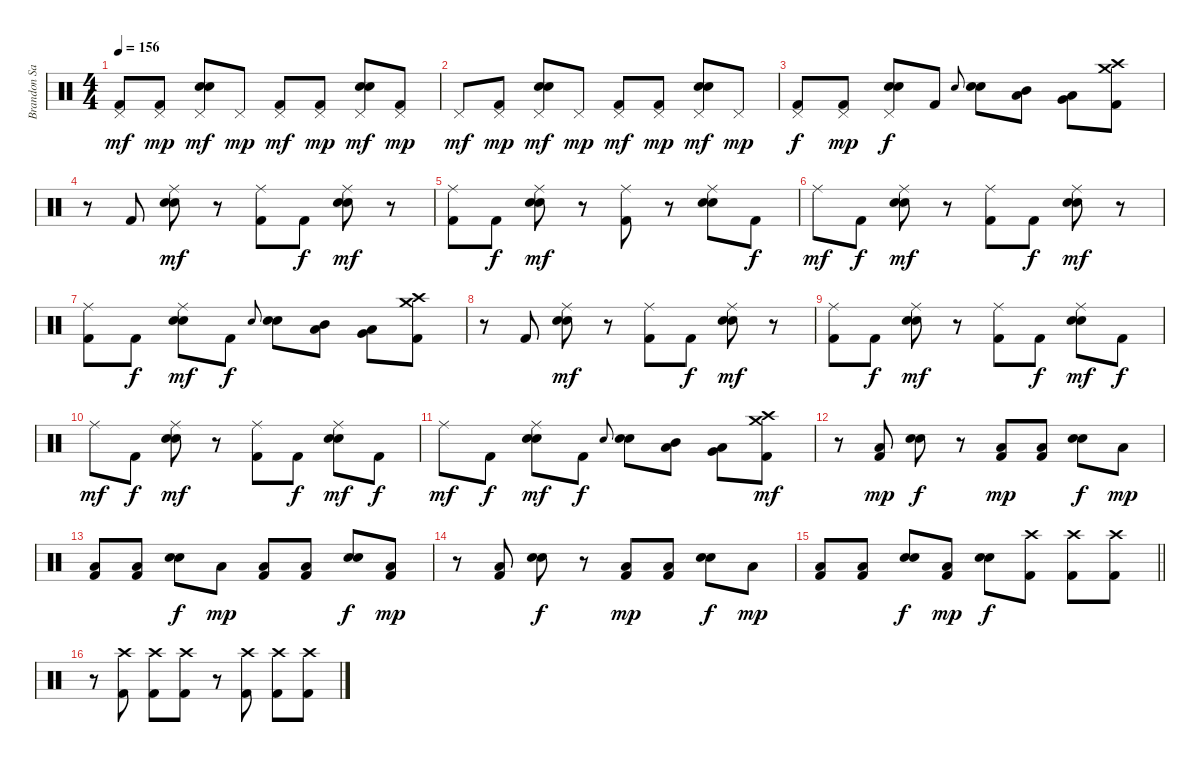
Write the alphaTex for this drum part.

\track ("Brandon Saller" "Brandon Sa") {instrument percussion}
\staff {score}
\articulation defaults
\ts (4 4)
\tempo 156
\clef neutral
\ks c
("Pedal Hi-Hat (hit)" "Kick (hit) 2").8{dy mf} ("Pedal Hi-Hat (hit)" "Kick (hit) 2").8{dy mp} ("Pedal Hi-Hat (hit)" "Snare (hit) 2" "Electric Snare (hit)").8{dy mf} "Pedal Hi-Hat (hit)".8{dy mp} ("Pedal Hi-Hat (hit)" "Kick (hit) 2").8{dy mf} ("Pedal Hi-Hat (hit)" "Kick (hit) 2").8{dy mp} ("Pedal Hi-Hat (hit)" "Snare (hit) 2" "Electric Snare (hit)").8{dy mf} ("Pedal Hi-Hat (hit)" "Kick (hit) 2").8{dy mp} |
"Pedal Hi-Hat (hit)".8{dy mf} ("Pedal Hi-Hat (hit)" "Kick (hit) 2").8{dy mp} ("Pedal Hi-Hat (hit)" "Snare (hit) 2" "Electric Snare (hit)").8{dy mf} "Pedal Hi-Hat (hit)".8{dy mp} ("Pedal Hi-Hat (hit)" "Kick (hit) 2").8{dy mf} ("Pedal Hi-Hat (hit)" "Kick (hit) 2").8{dy mp} ("Pedal Hi-Hat (hit)" "Snare (hit) 2" "Electric Snare (hit)").8{dy mf} "Pedal Hi-Hat (hit)".8{dy mp} |
("Pedal Hi-Hat (hit)" "Kick (hit) 2").8{dy f} ("Pedal Hi-Hat (hit)" "Kick (hit) 2").8{dy mp} ("Pedal Hi-Hat (hit)" "Snare (hit) 2" "Electric Snare (hit)").8{dy f} "Kick (hit) 2".8 "Electric Snare (hit)".8{gr onbeat} ("Snare (hit) 2" "Electric Snare (hit)").8 ("Mid Tom (hit)" "Low Tom (hit)").8 ("Low Tom (hit)" "Very Low Tom (hit)").8 ("Crash high (hit)" "Crash medium (hit)" "Kick (hit) 2").8 |
r.8 "Kick (hit) 2".8 ("Ride (middle)" "Snare (hit) 2" "Electric Snare (hit)").8{dy mf} r.8 ("Ride (middle)" "Kick (hit) 2").8 "Kick (hit) 2".8{dy f} ("Ride (middle)" "Snare (hit) 2" "Electric Snare (hit)").8{dy mf} r.8 |
("Ride (middle)" "Kick (hit) 2").8 "Kick (hit) 2".8{dy f} ("Ride (middle)" "Snare (hit) 2" "Electric Snare (hit)").8{dy mf} r.8 ("Ride (middle)" "Kick (hit) 2").8 r.8 ("Ride (middle)" "Snare (hit) 2" "Electric Snare (hit)").8 "Kick (hit) 2".8{dy f} |
"Ride (middle)".8{dy mf} "Kick (hit) 2".8{dy f} ("Ride (middle)" "Snare (hit) 2" "Electric Snare (hit)").8{dy mf} r.8 ("Ride (middle)" "Kick (hit) 2").8 "Kick (hit) 2".8{dy f} ("Ride (middle)" "Snare (hit) 2" "Electric Snare (hit)").8{dy mf} r.8 |
("Ride (middle)" "Kick (hit) 2").8 "Kick (hit) 2".8{dy f} ("Ride (middle)" "Snare (hit) 2" "Electric Snare (hit)").8{dy mf} "Kick (hit) 2".8{dy f} "Electric Snare (hit)".8{gr onbeat} ("Snare (hit) 2" "Electric Snare (hit)").8 ("Mid Tom (hit)" "Low Tom (hit)").8 ("Low Tom (hit)" "Very Low Tom (hit)").8 ("Crash high (hit)" "Crash medium (hit)" "Kick (hit) 2").8 |
r.8 "Kick (hit) 2".8 ("Ride (middle)" "Snare (hit) 2" "Electric Snare (hit)").8{dy mf} r.8 ("Ride (middle)" "Kick (hit) 2").8 "Kick (hit) 2".8{dy f} ("Ride (middle)" "Snare (hit) 2" "Electric Snare (hit)").8{dy mf} r.8 |
("Ride (middle)" "Kick (hit) 2").8 "Kick (hit) 2".8{dy f} ("Ride (middle)" "Snare (hit) 2" "Electric Snare (hit)").8{dy mf} r.8 ("Ride (middle)" "Kick (hit) 2").8 "Kick (hit) 2".8{dy f} ("Ride (middle)" "Snare (hit) 2" "Electric Snare (hit)").8{dy mf} "Kick (hit) 2".8{dy f} |
"Ride (middle)".8{dy mf} "Kick (hit) 2".8{dy f} ("Ride (middle)" "Snare (hit) 2" "Electric Snare (hit)").8{dy mf} r.8 ("Ride (middle)" "Kick (hit) 2").8 "Kick (hit) 2".8{dy f} ("Ride (middle)" "Snare (hit) 2" "Electric Snare (hit)").8{dy mf} "Kick (hit) 2".8{dy f} |
"Ride (middle)".8{dy mf} "Kick (hit) 2".8{dy f} ("Ride (middle)" "Snare (hit) 2" "Electric Snare (hit)").8{dy mf} "Kick (hit) 2".8{dy f} "Electric Snare (hit)".8{gr onbeat} ("Snare (hit) 2" "Electric Snare (hit)").8 ("Mid Tom (hit)" "Low Tom (hit)").8 ("Low Tom (hit)" "Very Low Tom (hit)").8 ("Crash high (hit)" "Crash medium (hit)" "Kick (hit) 2").8{dy mf} |
r.8 ("Low Floor Tom (hit)" "Kick (hit) 2").8{dy mp} ("Snare (hit) 2" "Electric Snare (hit)").8{dy f} r.8 ("Low Floor Tom (hit)" "Kick (hit) 2").8{dy mp} ("Low Floor Tom (hit)" "Kick (hit) 2").8 ("Snare (hit) 2" "Electric Snare (hit)").8{dy f} "Low Floor Tom (hit)".8{dy mp} |
("Low Floor Tom (hit)" "Kick (hit) 2").8 ("Low Floor Tom (hit)" "Kick (hit) 2").8 ("Snare (hit) 2" "Electric Snare (hit)").8{dy f} "Low Floor Tom (hit)".8{dy mp} ("Low Floor Tom (hit)" "Kick (hit) 2").8 ("Low Floor Tom (hit)" "Kick (hit) 2").8 ("Snare (hit) 2" "Electric Snare (hit)").8{dy f} ("Low Floor Tom (hit)" "Kick (hit) 2").8{dy mp} |
r.8 ("Low Floor Tom (hit)" "Kick (hit) 2").8 ("Snare (hit) 2" "Electric Snare (hit)").8{dy f} r.8 ("Low Floor Tom (hit)" "Kick (hit) 2").8{dy mp} ("Low Floor Tom (hit)" "Kick (hit) 2").8 ("Snare (hit) 2" "Electric Snare (hit)").8{dy f} "Low Floor Tom (hit)".8{dy mp} |
\barLineRight lightlight
("Low Floor Tom (hit)" "Kick (hit) 2").8 ("Low Floor Tom (hit)" "Kick (hit) 2").8 ("Snare (hit) 2" "Electric Snare (hit)").8{dy f} ("Low Floor Tom (hit)" "Kick (hit) 2").8{dy mp} ("Snare (hit) 2" "Electric Snare (hit)").8{dy f} ("Crash high (hit)" "Kick (hit) 2").8 ("Crash high (hit)" "Kick (hit) 2").8 ("Crash high (hit)" "Kick (hit) 2").8 |
r.8{volume 0} ("Crash high (hit)" "Kick (hit) 2").8{volume 11} ("Crash high (hit)" "Kick (hit) 2").8 ("Crash high (hit)" "Kick (hit) 2").8 r.8{volume 0} ("Crash high (hit)" "Kick (hit) 2").8{volume 11} ("Crash high (hit)" "Kick (hit) 2").8 ("Crash high (hit)" "Kick (hit) 2").8
